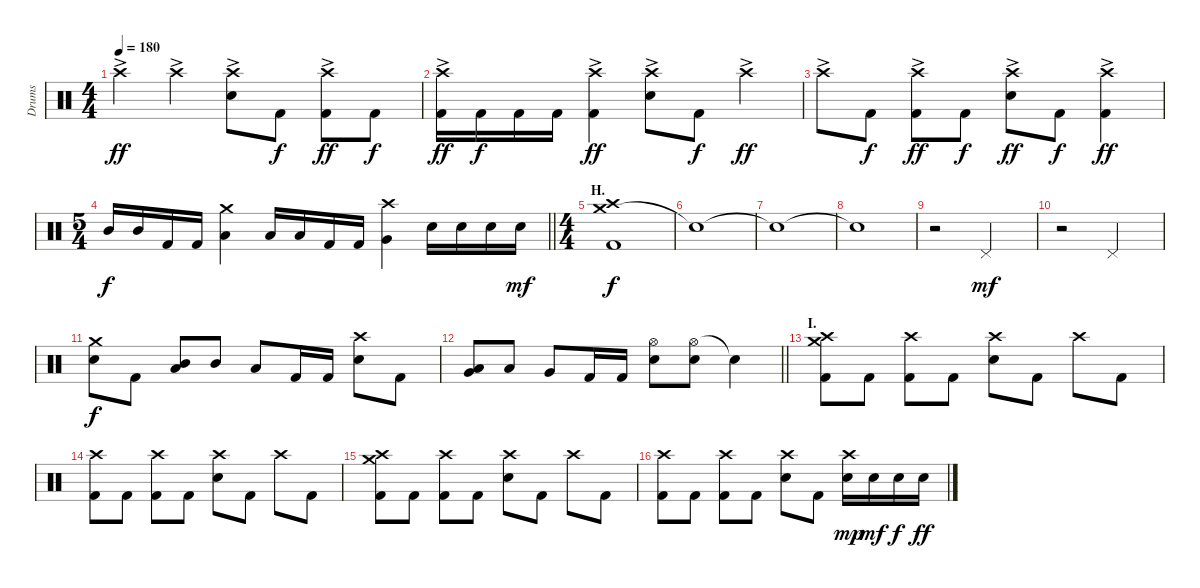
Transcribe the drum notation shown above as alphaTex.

\track ("Drums" "Drums") {instrument percussion}
\staff {score}
\articulation defaults
\ts (4 4)
\tempo 180
\clef neutral
\ks c "Crash high (hit)"{ac}.4{dy ff} "Crash high (hit)"{ac}.4
("Crash high (hit)"{ac} "Electric Snare (hit)").8 "Kick (hit) 2".8{dy f} ("Crash high (hit)"{ac} "Kick (hit) 2").8{dy ff} "Kick (hit) 2".8{dy f} |
("Crash high (hit)"{ac} "Kick (hit) 2").16{dy ff} "Kick (hit) 2".16{dy f} "Kick (hit) 2".16 "Kick (hit) 2".16 ("Crash high (hit)"{ac} "Kick (hit) 2").4{dy ff} ("Crash high (hit)"{ac} "Electric Snare (hit)").8 "Kick (hit) 2".8{dy f} "Crash high (hit)"{ac}.4{dy ff} |
"Crash high (hit)"{ac}.8 "Kick (hit) 2".8{dy f} ("Crash high (hit)"{ac} "Kick (hit) 2").8{dy ff} "Kick (hit) 2".8{dy f} ("Crash high (hit)"{ac} "Electric Snare (hit)").8{dy ff} "Kick (hit) 2".8{dy f} ("Crash high (hit)"{ac} "Kick (hit) 2").4{dy ff} |
\ts (5 4)
\barLineRight lightlight "Mid Tom (hit)".16{dy f} "Mid Tom (hit)".16 "Kick (hit) 2".16 "Kick (hit) 2".16
("Crash medium (hit)" "Low Tom (hit)").4 "Low Tom (hit)".16 "Low Tom (hit)".16 "Kick (hit) 2".16 "Kick (hit) 2".16 ("Crash high (hit)" "Very Low Tom (hit)").4 "Electric Snare (hit)".16 "Electric Snare (hit)".16 "Electric Snare (hit)".16 "Electric Snare (hit)".16{dy mf} |
\ts (4 4)
\section ("" "H.")
("Crash medium (hit)" "Crash high (hit)" "Kick (hit) 2").1{dy f} |
"Snare (hit)"{t}.1 |
"Snare (hit)"{t}.1 |
"Snare (hit)"{t}.1 |
r.2 "Pedal Hi-Hat (hit)".2{dy mf} |
r.2 "Pedal Hi-Hat (hit)".2 |
("Crash medium (hit)" "Electric Snare (hit)").8{dy f} "Kick (hit) 2".8 ("Mid Tom (hit)" "Low Tom (hit)").8{bu 120} "Mid Tom (hit)".8 "Low Tom (hit)".8 "Kick (hit) 2".16 "Kick (hit) 2".16 ("Crash high (hit)" "Electric Snare (hit)").8 "Kick (hit) 2".8 |
\barLineRight lightlight
("Low Tom (hit)" "Very Low Tom (hit)").8{bu 120} "Low Tom (hit)".8 "Very Low Tom (hit)".8 "Kick (hit) 2".16 "Kick (hit) 2".16 ("Hi-Hat (open)" "Electric Snare (hit)").8 ("Hi-Hat (open)" "Electric Snare (hit)").8 "Snare (hit)"{t}.4 |
\section ("" "I.")
("Crash medium (hit)" "Crash high (hit)" "Kick (hit) 2").8 "Kick (hit) 2".8 ("Crash high (hit)" "Kick (hit) 2").8 "Kick (hit) 2".8 ("Crash high (hit)" "Electric Snare (hit)").8 "Kick (hit) 2".8 "Crash high (hit)".8 "Kick (hit) 2".8 |
("Crash high (hit)" "Kick (hit) 2").8 "Kick (hit) 2".8 ("Crash high (hit)" "Kick (hit) 2").8 "Kick (hit) 2".8 ("Crash high (hit)" "Electric Snare (hit)").8 "Kick (hit) 2".8 "Crash high (hit)".8 "Kick (hit) 2".8 |
("Crash medium (hit)" "Crash high (hit)" "Kick (hit) 2").8 "Kick (hit) 2".8 ("Crash high (hit)" "Kick (hit) 2").8 "Kick (hit) 2".8 ("Crash high (hit)" "Electric Snare (hit)").8 "Kick (hit) 2".8 "Crash high (hit)".8 "Kick (hit) 2".8 |
("Crash high (hit)" "Kick (hit) 2").8 "Kick (hit) 2".8 ("Crash high (hit)" "Kick (hit) 2").8 "Kick (hit) 2".8 ("Crash high (hit)" "Electric Snare (hit)").8 "Kick (hit) 2".8 ("Crash high (hit)" "Electric Snare (hit)").16{dy mp} "Electric Snare (hit)".16{dy mf} "Electric Snare (hit)".16{dy f} "Electric Snare (hit)".16{dy ff}
